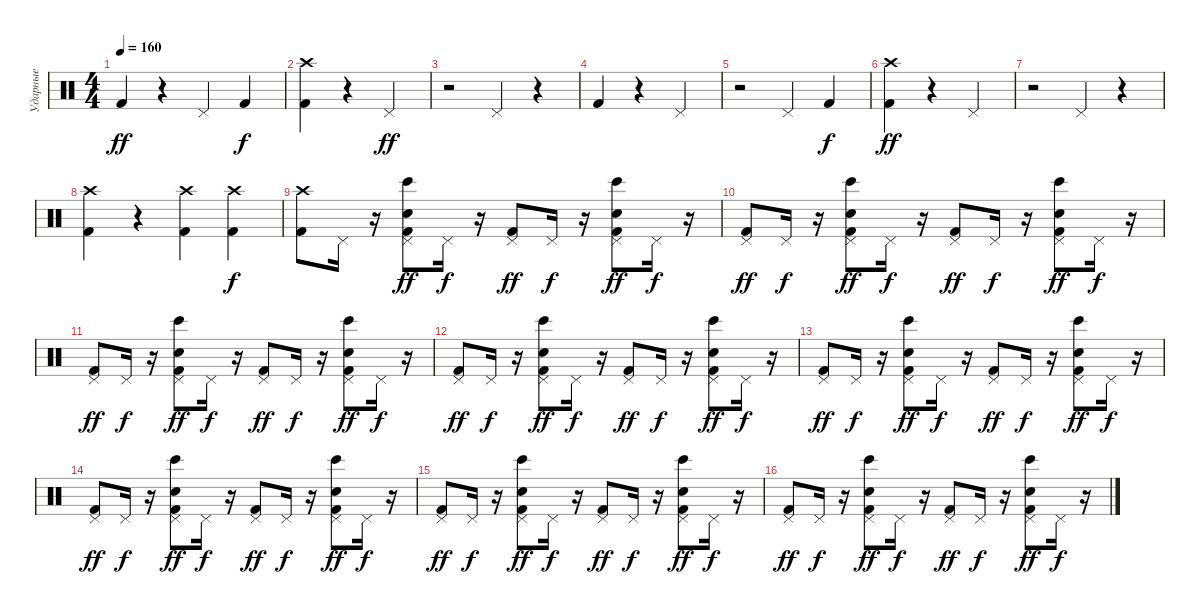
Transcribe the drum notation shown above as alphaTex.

\track ("Ударные" "Ударные") {instrument percussion}
\staff {score}
\articulation defaults
\ts (4 4)
\tempo 160
\clef neutral
\ks c "Kick (hit) 2".4{dy ff}
r.4 "Pedal Hi-Hat (hit)".4 "Kick (hit) 2".4{dy f} |
("Kick (hit) 2" "Crash high (hit)").4 r.4 "Pedal Hi-Hat (hit)".4{dy ff} |
r.2 "Pedal Hi-Hat (hit)".4 r.4 |
"Kick (hit) 2".4 r.4 "Pedal Hi-Hat (hit)".4 |
r.2 "Pedal Hi-Hat (hit)".4 "Kick (hit) 2".4{dy f} |
("Kick (hit) 2" "Crash high (hit)").4{dy ff} r.4 "Pedal Hi-Hat (hit)".4 |
r.2 "Pedal Hi-Hat (hit)".4 r.4 |
("Kick (hit) 2" "Crash high (hit)").4 r.4 ("Kick (hit) 2" "Crash high (hit)").4 ("Kick (hit) 2" "Crash high (hit)").4{dy f} |
("Kick (hit) 2" "Crash high (hit)").8 "Pedal Hi-Hat (hit)".16 r.16 ("Kick (hit) 2" "Snare (hit) 2" "Pedal Hi-Hat (hit)" "Bongo High (hit)").8{dy ff} "Pedal Hi-Hat (hit)".16{dy f} r.16 ("Kick (hit) 2" "Pedal Hi-Hat (hit)").8{dy ff} "Pedal Hi-Hat (hit)".16{dy f} r.16 ("Snare (hit) 2" "Kick (hit) 2" "Pedal Hi-Hat (hit)" "Bongo High (hit)").8{dy ff} "Pedal Hi-Hat (hit)".16{dy f} r.16 |
("Kick (hit) 2" "Pedal Hi-Hat (hit)").8{dy ff} "Pedal Hi-Hat (hit)".16{dy f} r.16 ("Kick (hit) 2" "Snare (hit) 2" "Pedal Hi-Hat (hit)" "Bongo High (hit)").8{dy ff} "Pedal Hi-Hat (hit)".16{dy f} r.16 ("Kick (hit) 2" "Pedal Hi-Hat (hit)").8{dy ff} "Pedal Hi-Hat (hit)".16{dy f} r.16 ("Snare (hit) 2" "Kick (hit) 2" "Pedal Hi-Hat (hit)" "Bongo High (hit)").8{dy ff} "Pedal Hi-Hat (hit)".16{dy f} r.16 |
("Kick (hit) 2" "Pedal Hi-Hat (hit)").8{dy ff} "Pedal Hi-Hat (hit)".16{dy f} r.16 ("Kick (hit) 2" "Snare (hit) 2" "Pedal Hi-Hat (hit)" "Bongo High (hit)").8{dy ff} "Pedal Hi-Hat (hit)".16{dy f} r.16 ("Kick (hit) 2" "Pedal Hi-Hat (hit)").8{dy ff} "Pedal Hi-Hat (hit)".16{dy f} r.16 ("Snare (hit) 2" "Kick (hit) 2" "Pedal Hi-Hat (hit)" "Bongo High (hit)").8{dy ff} "Pedal Hi-Hat (hit)".16{dy f} r.16 |
("Kick (hit) 2" "Pedal Hi-Hat (hit)").8{dy ff} "Pedal Hi-Hat (hit)".16{dy f} r.16 ("Snare (hit) 2" "Kick (hit) 2" "Pedal Hi-Hat (hit)" "Bongo High (hit)").8{dy ff} "Pedal Hi-Hat (hit)".16{dy f} r.16 ("Kick (hit) 2" "Pedal Hi-Hat (hit)").8{dy ff} "Pedal Hi-Hat (hit)".16{dy f} r.16 ("Kick (hit) 2" "Snare (hit) 2" "Pedal Hi-Hat (hit)" "Bongo High (hit)").8{dy ff} "Pedal Hi-Hat (hit)".16{dy f} r.16 |
("Kick (hit) 2" "Pedal Hi-Hat (hit)").8{dy ff} "Pedal Hi-Hat (hit)".16{dy f} r.16 ("Kick (hit) 2" "Snare (hit) 2" "Pedal Hi-Hat (hit)" "Bongo High (hit)").8{dy ff} "Pedal Hi-Hat (hit)".16{dy f} r.16 ("Kick (hit) 2" "Pedal Hi-Hat (hit)").8{dy ff} "Pedal Hi-Hat (hit)".16{dy f} r.16 ("Kick (hit) 2" "Snare (hit) 2" "Pedal Hi-Hat (hit)" "Bongo High (hit)").8{dy ff} "Pedal Hi-Hat (hit)".16{dy f} r.16 |
("Kick (hit) 2" "Pedal Hi-Hat (hit)").8{dy ff} "Pedal Hi-Hat (hit)".16{dy f} r.16 ("Kick (hit) 2" "Snare (hit) 2" "Pedal Hi-Hat (hit)" "Bongo High (hit)").8{dy ff} "Pedal Hi-Hat (hit)".16{dy f} r.16 ("Kick (hit) 2" "Pedal Hi-Hat (hit)").8{dy ff} "Pedal Hi-Hat (hit)".16{dy f} r.16 ("Snare (hit) 2" "Kick (hit) 2" "Pedal Hi-Hat (hit)" "Bongo High (hit)").8{dy ff} "Pedal Hi-Hat (hit)".16{dy f} r.16 |
("Kick (hit) 2" "Pedal Hi-Hat (hit)").8{dy ff} "Pedal Hi-Hat (hit)".16{dy f} r.16 ("Snare (hit) 2" "Kick (hit) 2" "Pedal Hi-Hat (hit)" "Bongo High (hit)").8{dy ff} "Pedal Hi-Hat (hit)".16{dy f} r.16 ("Kick (hit) 2" "Pedal Hi-Hat (hit)").8{dy ff} "Pedal Hi-Hat (hit)".16{dy f} r.16 ("Kick (hit) 2" "Snare (hit) 2" "Pedal Hi-Hat (hit)" "Bongo High (hit)").8{dy ff} "Pedal Hi-Hat (hit)".16{dy f} r.16 |
("Kick (hit) 2" "Pedal Hi-Hat (hit)").8{dy ff} "Pedal Hi-Hat (hit)".16{dy f} r.16 ("Kick (hit) 2" "Snare (hit) 2" "Pedal Hi-Hat (hit)" "Bongo High (hit)").8{dy ff} "Pedal Hi-Hat (hit)".16{dy f} r.16 ("Kick (hit) 2" "Pedal Hi-Hat (hit)").8{dy ff} "Pedal Hi-Hat (hit)".16{dy f} r.16 ("Kick (hit) 2" "Snare (hit) 2" "Pedal Hi-Hat (hit)" "Bongo High (hit)").8{dy ff} "Pedal Hi-Hat (hit)".16{dy f} r.16
